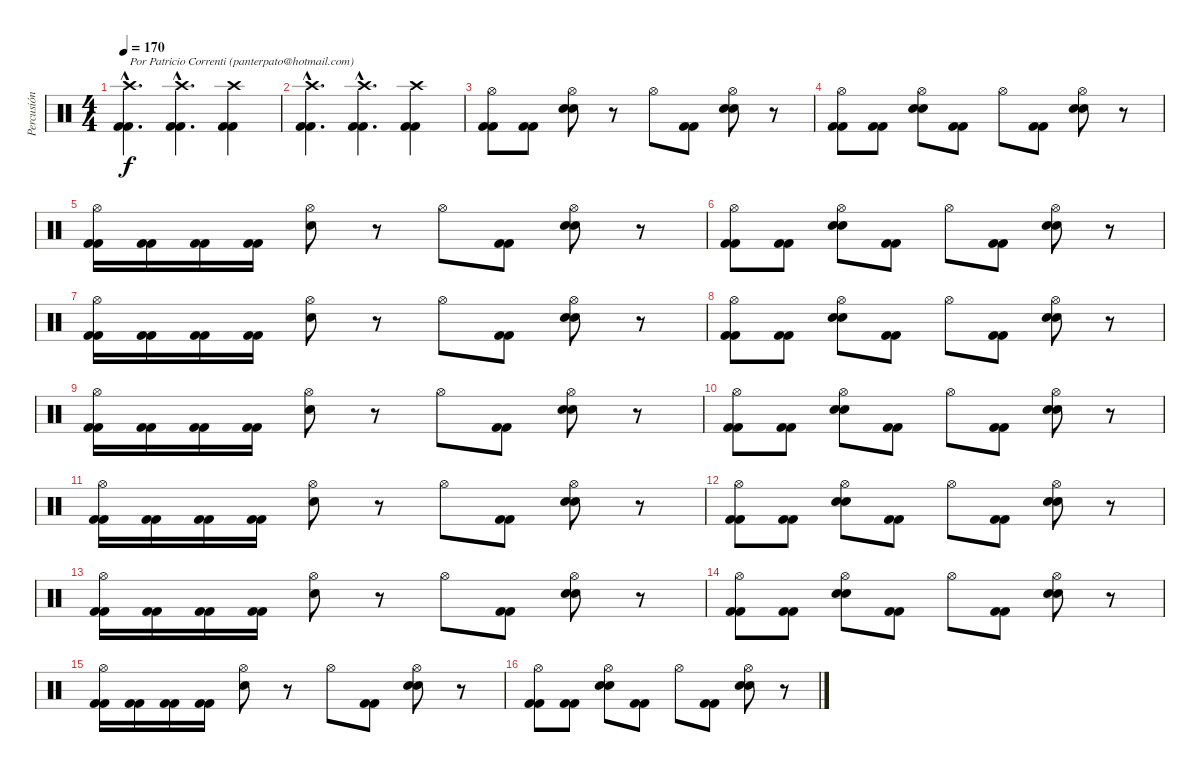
\track ("Percusión" "Percusión") {instrument percussion}
\staff {score}
\articulation defaults
\ts (4 4)
\tempo 170
\clef neutral
\ks c
("Crash high (hit)"{hac} "Kick (hit) 2"{hac} "Kick (hit) 2"{hac}).4{d txt "Por Patricio Correnti (panterpato@hotmail.com)" dy f} ("Crash high (hit)"{hac} "Kick (hit) 2"{hac} "Kick (hit) 2"{hac}).4{d} ("Crash high (hit)" "Kick (hit) 2" "Kick (hit) 2").4 |
("Crash high (hit)"{hac} "Kick (hit) 2"{hac} "Kick (hit) 2"{hac}).4{d} ("Crash high (hit)"{hac} "Kick (hit) 2"{hac} "Kick (hit) 2"{hac}).4{d} ("Crash high (hit)" "Kick (hit) 2" "Kick (hit) 2").4 |
("Hi-Hat (open)" "Kick (hit) 2" "Kick (hit) 2").8 ("Kick (hit) 2" "Kick (hit) 2").8 ("Hi-Hat (open)" "Electric Snare (hit)" "Electric Snare (hit)").8 r.8 "Hi-Hat (open)".8 ("Kick (hit) 2" "Kick (hit) 2").8 ("Hi-Hat (open)" "Electric Snare (hit)" "Electric Snare (hit)").8 r.8 |
("Hi-Hat (open)" "Kick (hit) 2" "Kick (hit) 2").8 ("Kick (hit) 2" "Kick (hit) 2").8 ("Hi-Hat (open)" "Electric Snare (hit)" "Electric Snare (hit)").8 ("Kick (hit) 2" "Kick (hit) 2").8 "Hi-Hat (open)".8 ("Kick (hit) 2" "Kick (hit) 2").8 ("Hi-Hat (open)" "Electric Snare (hit)" "Electric Snare (hit)").8 r.8 |
("Hi-Hat (open)" "Kick (hit) 2" "Kick (hit) 2").16 ("Kick (hit) 2" "Kick (hit) 2").16 ("Kick (hit) 2" "Kick (hit) 2").16 ("Kick (hit) 2" "Kick (hit) 2").16 ("Hi-Hat (open)" "Electric Snare (hit)").8 r.8 "Hi-Hat (open)".8 ("Kick (hit) 2" "Kick (hit) 2").8 ("Hi-Hat (open)" "Electric Snare (hit)" "Electric Snare (hit)").8 r.8 |
("Hi-Hat (open)" "Kick (hit) 2" "Kick (hit) 2").8 ("Kick (hit) 2" "Kick (hit) 2").8 ("Hi-Hat (open)" "Electric Snare (hit)" "Electric Snare (hit)").8 ("Kick (hit) 2" "Kick (hit) 2").8 "Hi-Hat (open)".8 ("Kick (hit) 2" "Kick (hit) 2").8 ("Hi-Hat (open)" "Electric Snare (hit)" "Electric Snare (hit)").8 r.8 |
("Hi-Hat (open)" "Kick (hit) 2" "Kick (hit) 2").16 ("Kick (hit) 2" "Kick (hit) 2").16 ("Kick (hit) 2" "Kick (hit) 2").16 ("Kick (hit) 2" "Kick (hit) 2").16 ("Hi-Hat (open)" "Electric Snare (hit)").8 r.8 "Hi-Hat (open)".8 ("Kick (hit) 2" "Kick (hit) 2").8 ("Hi-Hat (open)" "Electric Snare (hit)" "Electric Snare (hit)").8 r.8 |
("Hi-Hat (open)" "Kick (hit) 2" "Kick (hit) 2").8 ("Kick (hit) 2" "Kick (hit) 2").8 ("Hi-Hat (open)" "Electric Snare (hit)" "Electric Snare (hit)").8 ("Kick (hit) 2" "Kick (hit) 2").8 "Hi-Hat (open)".8 ("Kick (hit) 2" "Kick (hit) 2").8 ("Hi-Hat (open)" "Electric Snare (hit)" "Electric Snare (hit)").8 r.8 |
("Hi-Hat (open)" "Kick (hit) 2" "Kick (hit) 2").16 ("Kick (hit) 2" "Kick (hit) 2").16 ("Kick (hit) 2" "Kick (hit) 2").16 ("Kick (hit) 2" "Kick (hit) 2").16 ("Hi-Hat (open)" "Electric Snare (hit)").8 r.8 "Hi-Hat (open)".8 ("Kick (hit) 2" "Kick (hit) 2").8 ("Hi-Hat (open)" "Electric Snare (hit)" "Electric Snare (hit)").8 r.8 |
("Hi-Hat (open)" "Kick (hit) 2" "Kick (hit) 2").8 ("Kick (hit) 2" "Kick (hit) 2").8 ("Hi-Hat (open)" "Electric Snare (hit)" "Electric Snare (hit)").8 ("Kick (hit) 2" "Kick (hit) 2").8 "Hi-Hat (open)".8 ("Kick (hit) 2" "Kick (hit) 2").8 ("Hi-Hat (open)" "Electric Snare (hit)" "Electric Snare (hit)").8 r.8 |
("Hi-Hat (open)" "Kick (hit) 2" "Kick (hit) 2").16 ("Kick (hit) 2" "Kick (hit) 2").16 ("Kick (hit) 2" "Kick (hit) 2").16 ("Kick (hit) 2" "Kick (hit) 2").16 ("Hi-Hat (open)" "Electric Snare (hit)").8 r.8 "Hi-Hat (open)".8 ("Kick (hit) 2" "Kick (hit) 2").8 ("Hi-Hat (open)" "Electric Snare (hit)" "Electric Snare (hit)").8 r.8 |
("Hi-Hat (open)" "Kick (hit) 2" "Kick (hit) 2").8 ("Kick (hit) 2" "Kick (hit) 2").8 ("Hi-Hat (open)" "Electric Snare (hit)" "Electric Snare (hit)").8 ("Kick (hit) 2" "Kick (hit) 2").8 "Hi-Hat (open)".8 ("Kick (hit) 2" "Kick (hit) 2").8 ("Hi-Hat (open)" "Electric Snare (hit)" "Electric Snare (hit)").8 r.8 |
("Hi-Hat (open)" "Kick (hit) 2" "Kick (hit) 2").16 ("Kick (hit) 2" "Kick (hit) 2").16 ("Kick (hit) 2" "Kick (hit) 2").16 ("Kick (hit) 2" "Kick (hit) 2").16 ("Hi-Hat (open)" "Electric Snare (hit)").8 r.8 "Hi-Hat (open)".8 ("Kick (hit) 2" "Kick (hit) 2").8 ("Hi-Hat (open)" "Electric Snare (hit)" "Electric Snare (hit)").8 r.8 |
("Hi-Hat (open)" "Kick (hit) 2" "Kick (hit) 2").8 ("Kick (hit) 2" "Kick (hit) 2").8 ("Hi-Hat (open)" "Electric Snare (hit)" "Electric Snare (hit)").8 ("Kick (hit) 2" "Kick (hit) 2").8 "Hi-Hat (open)".8 ("Kick (hit) 2" "Kick (hit) 2").8 ("Hi-Hat (open)" "Electric Snare (hit)" "Electric Snare (hit)").8 r.8 |
("Hi-Hat (open)" "Kick (hit) 2" "Kick (hit) 2").16 ("Kick (hit) 2" "Kick (hit) 2").16 ("Kick (hit) 2" "Kick (hit) 2").16 ("Kick (hit) 2" "Kick (hit) 2").16 ("Hi-Hat (open)" "Electric Snare (hit)").8 r.8 "Hi-Hat (open)".8 ("Kick (hit) 2" "Kick (hit) 2").8 ("Hi-Hat (open)" "Electric Snare (hit)" "Electric Snare (hit)").8 r.8 |
("Hi-Hat (open)" "Kick (hit) 2" "Kick (hit) 2").8 ("Kick (hit) 2" "Kick (hit) 2").8 ("Hi-Hat (open)" "Electric Snare (hit)" "Electric Snare (hit)").8 ("Kick (hit) 2" "Kick (hit) 2").8 "Hi-Hat (open)".8 ("Kick (hit) 2" "Kick (hit) 2").8 ("Hi-Hat (open)" "Electric Snare (hit)" "Electric Snare (hit)").8 r.8
